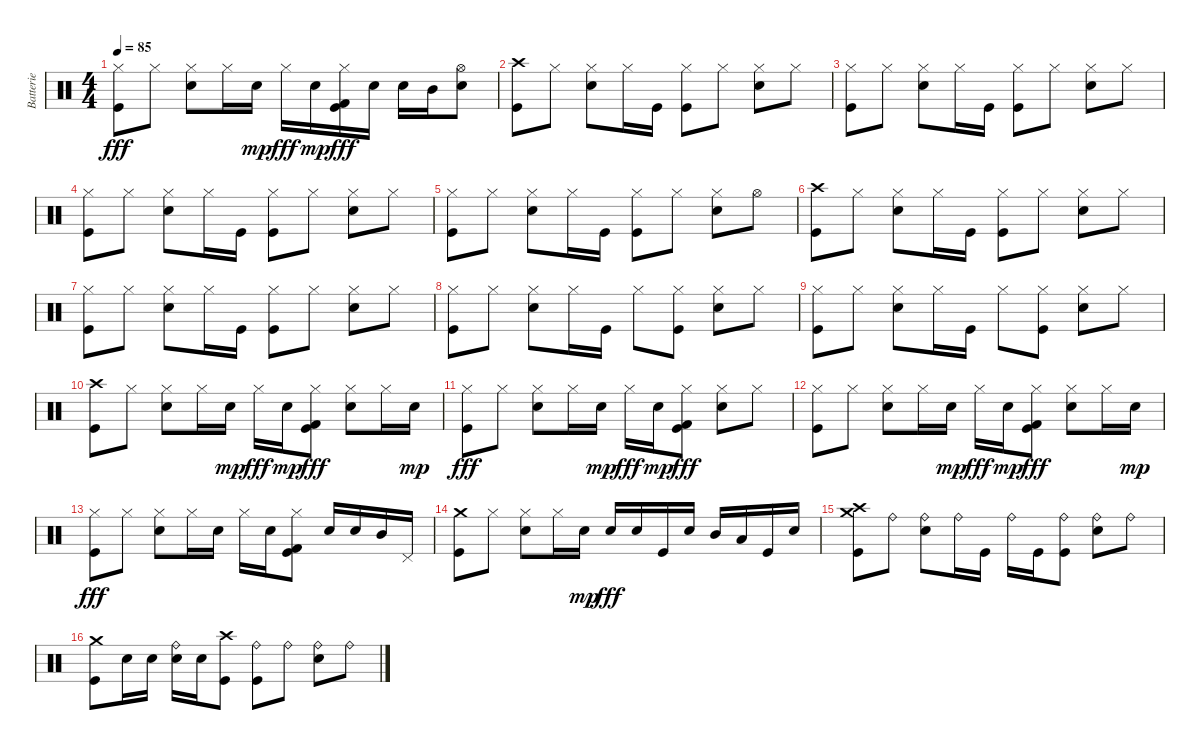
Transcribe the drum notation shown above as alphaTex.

\track ("Batterie" "Batterie") {instrument percussion}
\staff {score}
\articulation defaults
\ts (4 4)
\tempo 85
\clef neutral
\ks c
("Hi-Hat (closed)" "Kick (hit)").8{dy fff} "Hi-Hat (closed)".8 ("Hi-Hat (closed)" "Electric Snare (hit)").8 "Hi-Hat (closed)".16 "Electric Snare (hit)".16{dy mp} "Hi-Hat (closed)".16{dy fff} "Electric Snare (hit)".16{dy mp} ("Hi-Hat (closed)" "Kick (hit)" "Kick (hit) 2").16{dy fff} "Electric Snare (hit)".16 "Electric Snare (hit)".16 "Mid Tom (hit)".16 ("Hi-Hat (open)" "Electric Snare (hit)").8 |
("Crash high (hit)" "Kick (hit)").8 "Hi-Hat (closed)".8 ("Hi-Hat (closed)" "Electric Snare (hit)").8 "Hi-Hat (closed)".16 "Kick (hit)".16 ("Hi-Hat (closed)" "Kick (hit)").8 "Hi-Hat (closed)".8 ("Hi-Hat (closed)" "Electric Snare (hit)").8 "Hi-Hat (closed)".8 |
("Hi-Hat (closed)" "Kick (hit)").8 "Hi-Hat (closed)".8 ("Hi-Hat (closed)" "Electric Snare (hit)").8 "Hi-Hat (closed)".16 "Kick (hit)".16 ("Hi-Hat (closed)" "Kick (hit)").8 "Hi-Hat (closed)".8 ("Hi-Hat (closed)" "Electric Snare (hit)").8 "Hi-Hat (closed)".8 |
("Hi-Hat (closed)" "Kick (hit)").8 "Hi-Hat (closed)".8 ("Hi-Hat (closed)" "Electric Snare (hit)").8 "Hi-Hat (closed)".16 "Kick (hit)".16 ("Hi-Hat (closed)" "Kick (hit)").8 "Hi-Hat (closed)".8 ("Hi-Hat (closed)" "Electric Snare (hit)").8 "Hi-Hat (closed)".8 |
("Hi-Hat (closed)" "Kick (hit)").8 "Hi-Hat (closed)".8 ("Hi-Hat (closed)" "Electric Snare (hit)").8 "Hi-Hat (closed)".16 "Kick (hit)".16 ("Hi-Hat (closed)" "Kick (hit)").8 "Hi-Hat (closed)".8 ("Hi-Hat (closed)" "Electric Snare (hit)").8 "Hi-Hat (open)".8 |
("Crash high (hit)" "Kick (hit)").8 "Hi-Hat (closed)".8 ("Hi-Hat (closed)" "Electric Snare (hit)").8 "Hi-Hat (closed)".16 "Kick (hit)".16 ("Hi-Hat (closed)" "Kick (hit)").8 "Hi-Hat (closed)".8 ("Hi-Hat (closed)" "Electric Snare (hit)").8 "Hi-Hat (closed)".8 |
("Hi-Hat (closed)" "Kick (hit)").8 "Hi-Hat (closed)".8 ("Hi-Hat (closed)" "Electric Snare (hit)").8 "Hi-Hat (closed)".16 "Kick (hit)".16 ("Hi-Hat (closed)" "Kick (hit)").8 "Hi-Hat (closed)".8 ("Hi-Hat (closed)" "Electric Snare (hit)").8 "Hi-Hat (closed)".8 |
("Hi-Hat (closed)" "Kick (hit)").8 "Hi-Hat (closed)".8 ("Hi-Hat (closed)" "Electric Snare (hit)").8 "Hi-Hat (closed)".16 "Kick (hit)".16 "Hi-Hat (closed)".8 ("Hi-Hat (closed)" "Kick (hit)").8 ("Hi-Hat (closed)" "Electric Snare (hit)").8 "Hi-Hat (closed)".8 |
("Hi-Hat (closed)" "Kick (hit)").8 "Hi-Hat (closed)".8 ("Hi-Hat (closed)" "Electric Snare (hit)").8 "Hi-Hat (closed)".16 "Kick (hit)".16 "Hi-Hat (closed)".8 ("Hi-Hat (closed)" "Kick (hit)").8 ("Hi-Hat (closed)" "Electric Snare (hit)").8 "Hi-Hat (closed)".8 |
("Crash high (hit)" "Kick (hit)").8 "Hi-Hat (closed)".8 ("Hi-Hat (closed)" "Electric Snare (hit)").8 "Hi-Hat (closed)".16 "Electric Snare (hit)".16{dy mp} "Hi-Hat (closed)".16{dy fff} "Electric Snare (hit)".16{dy mp} ("Hi-Hat (closed)" "Kick (hit)" "Kick (hit) 2").8{dy fff} ("Hi-Hat (closed)" "Electric Snare (hit)").8 "Hi-Hat (closed)".16 "Electric Snare (hit)".16{dy mp} |
("Hi-Hat (closed)" "Kick (hit)").8{dy fff} "Hi-Hat (closed)".8 ("Hi-Hat (closed)" "Electric Snare (hit)").8 "Hi-Hat (closed)".16 "Electric Snare (hit)".16{dy mp} "Hi-Hat (closed)".16{dy fff} "Electric Snare (hit)".16{dy mp} ("Hi-Hat (closed)" "Kick (hit)" "Kick (hit) 2").8{dy fff} ("Hi-Hat (closed)" "Electric Snare (hit)").8 "Hi-Hat (closed)".8 |
("Hi-Hat (closed)" "Kick (hit)").8 "Hi-Hat (closed)".8 ("Hi-Hat (closed)" "Electric Snare (hit)").8 "Hi-Hat (closed)".16 "Electric Snare (hit)".16{dy mp} "Hi-Hat (closed)".16{dy fff} "Electric Snare (hit)".16{dy mp} ("Hi-Hat (closed)" "Kick (hit)" "Kick (hit) 2").8{dy fff} ("Hi-Hat (closed)" "Electric Snare (hit)").8 "Hi-Hat (closed)".16 "Electric Snare (hit)".16{dy mp} |
("Hi-Hat (closed)" "Kick (hit)").8{dy fff} "Hi-Hat (closed)".8 ("Hi-Hat (closed)" "Electric Snare (hit)").8 "Hi-Hat (closed)".16 "Electric Snare (hit)".16 "Hi-Hat (closed)".16 "Electric Snare (hit)".16 ("Hi-Hat (closed)" "Kick (hit)" "Kick (hit) 2").8 "Electric Snare (hit)".16 "Electric Snare (hit)".16 "Mid Tom (hit)".16 "Pedal Hi-Hat (hit)".16 |
("Crash medium (hit)" "Kick (hit)").8 "Hi-Hat (closed)".8 ("Hi-Hat (closed)" "Electric Snare (hit)").8 "Hi-Hat (closed)".16 "Electric Snare (hit)".16{dy mp} "Electric Snare (hit)".16{dy fff} "Electric Snare (hit)".16 "Kick (hit)".16 "Electric Snare (hit)".16 "Mid Tom (hit)".16 "Low Floor Tom (hit)".16 "Kick (hit)".16 "Electric Snare (hit)".16 |
("Crash high (hit)" "Kick (hit)" "Crash medium (hit)").8 "Ride (bell)".8 ("Ride (bell)" "Electric Snare (hit)").8 "Ride (bell)".16 "Kick (hit)".16 "Ride (bell)".16 "Kick (hit)".16 ("Ride (bell)" "Kick (hit)").8 ("Ride (bell)" "Electric Snare (hit)").8 "Ride (bell)".8 |
("Crash medium (hit)" "Kick (hit)").8 "Electric Snare (hit)".16 "Electric Snare (hit)".16 ("Ride (bell)" "Electric Snare (hit)").16 "Electric Snare (hit)".16 ("Crash high (hit)" "Kick (hit)").8 ("Ride (bell)" "Kick (hit)").8 "Ride (bell)".8 ("Ride (bell)" "Electric Snare (hit)").8 "Ride (bell)".8
